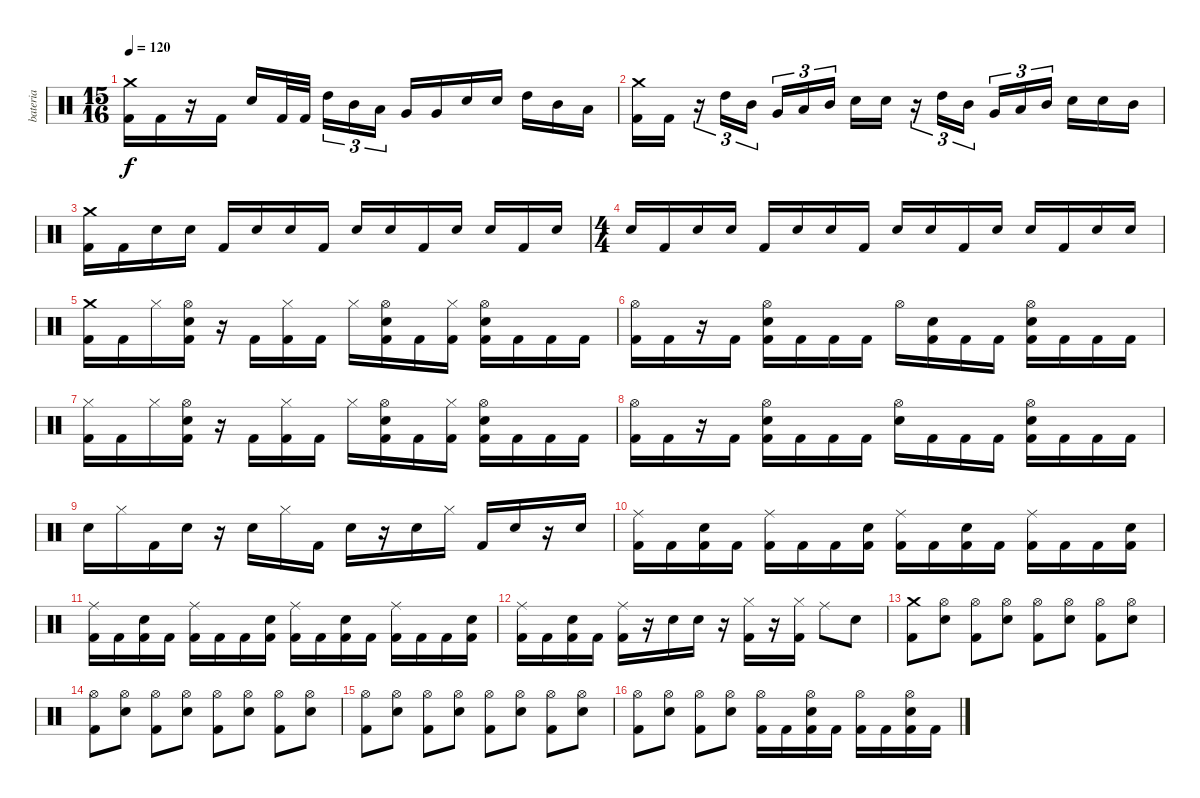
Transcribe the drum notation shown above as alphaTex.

\track ("bateria" "bateria") {instrument percussion}
\staff {score}
\articulation defaults
\ts (15 16)
\tempo 120
\clef neutral
\ks c
("Crash medium (hit)" "Kick (hit) 2").16{dy f} "Kick (hit) 2".16 r.16 "Kick (hit) 2".16 "Electric Snare (hit)".16 "Kick (hit) 2".32 "Kick (hit) 2".32 "High Tom (hit)".16{tu (3 2)} "Mid Tom (hit)".16{tu (3 2)} "Low Tom (hit)".16{tu (3 2)} "Very Low Tom (hit)".16 "Very Low Tom (hit)".16 "Electric Snare (hit)".16 "Electric Snare (hit)".16 "High Tom (hit)".16 "Mid Tom (hit)".16 "Low Tom (hit)".16 |
("Crash medium (hit)" "Kick (hit) 2").16 "Kick (hit) 2".16 r.16{tu (3 2)} "High Tom (hit)".16{tu (3 2)} "Mid Tom (hit)".16{tu (3 2)} "Very Low Tom (hit)".16{tu (3 2)} "Low Tom (hit)".16{tu (3 2)} "Mid Tom (hit)".16{tu (3 2)} "Electric Snare (hit)".16 "Electric Snare (hit)".16 r.16{tu (3 2)} "High Tom (hit)".16{tu (3 2)} "Mid Tom (hit)".16{tu (3 2)} "Very Low Tom (hit)".16{tu (3 2)} "Low Tom (hit)".16{tu (3 2)} "Mid Tom (hit)".16{tu (3 2)} "Electric Snare (hit)".16 "Electric Snare (hit)".16 "Mid Tom (hit)".16 |
("Crash medium (hit)" "Kick (hit) 2").16 "Kick (hit) 2".16 "Electric Snare (hit)".16 "Electric Snare (hit)".16 "Kick (hit) 2".16 "Electric Snare (hit)".16 "Electric Snare (hit)".16 "Kick (hit) 2".16 "Electric Snare (hit)".16 "Electric Snare (hit)".16 "Kick (hit) 2".16 "Electric Snare (hit)".16 "Electric Snare (hit)".16 "Kick (hit) 2".16 "Electric Snare (hit)".16 |
\ts (4 4)
"Electric Snare (hit)".16 "Kick (hit) 2".16 "Electric Snare (hit)".16 "Electric Snare (hit)".16 "Kick (hit) 2".16 "Electric Snare (hit)".16 "Electric Snare (hit)".16 "Kick (hit) 2".16 "Electric Snare (hit)".16 "Electric Snare (hit)".16 "Kick (hit) 2".16 "Electric Snare (hit)".16 "Electric Snare (hit)".16 "Kick (hit) 2".16 "Electric Snare (hit)".16 "Electric Snare (hit)".16 |
("Crash medium (hit)" "Kick (hit) 2").16 "Kick (hit) 2".16 "Hi-Hat (closed)".16 ("Hi-Hat (open)" "Electric Snare (hit)" "Kick (hit) 2").16 r.16 "Kick (hit) 2".16 ("Hi-Hat (closed)" "Kick (hit) 2").16 "Kick (hit) 2".16 "Hi-Hat (closed)".16 ("Hi-Hat (open)" "Electric Snare (hit)" "Kick (hit) 2").16 "Kick (hit) 2".16 ("Hi-Hat (closed)" "Kick (hit) 2").16 ("Hi-Hat (open)" "Electric Snare (hit)" "Kick (hit) 2").16 "Kick (hit) 2".16 "Kick (hit) 2".16 "Kick (hit) 2".16 |
("Hi-Hat (open)" "Kick (hit) 2").16 "Kick (hit) 2".16 r.16 "Kick (hit) 2".16 ("Hi-Hat (open)" "Electric Snare (hit)" "Kick (hit) 2").16 "Kick (hit) 2".16 "Kick (hit) 2".16 "Kick (hit) 2".16 "Hi-Hat (open)".16 ("Electric Snare (hit)" "Kick (hit) 2").16 "Kick (hit) 2".16 "Kick (hit) 2".16 ("Hi-Hat (open)" "Electric Snare (hit)" "Kick (hit) 2").16 "Kick (hit) 2".16 "Kick (hit) 2".16 "Kick (hit) 2".16 |
("Hi-Hat (closed)" "Kick (hit) 2").16 "Kick (hit) 2".16 "Hi-Hat (closed)".16 ("Hi-Hat (open)" "Electric Snare (hit)" "Kick (hit) 2").16 r.16 "Kick (hit) 2".16 ("Hi-Hat (closed)" "Kick (hit) 2").16 "Kick (hit) 2".16 "Hi-Hat (closed)".16 ("Hi-Hat (open)" "Electric Snare (hit)" "Kick (hit) 2").16 "Kick (hit) 2".16 ("Hi-Hat (closed)" "Kick (hit) 2").16 ("Hi-Hat (open)" "Electric Snare (hit)" "Kick (hit) 2").16 "Kick (hit) 2".16 "Kick (hit) 2".16 "Kick (hit) 2".16 |
("Hi-Hat (open)" "Kick (hit) 2").16 "Kick (hit) 2".16 r.16 "Kick (hit) 2".16 ("Hi-Hat (open)" "Electric Snare (hit)" "Kick (hit) 2").16 "Kick (hit) 2".16 "Kick (hit) 2".16 "Kick (hit) 2".16 ("Hi-Hat (open)" "Electric Snare (hit)").16 "Kick (hit) 2".16 "Kick (hit) 2".16 "Kick (hit) 2".16 ("Hi-Hat (open)" "Electric Snare (hit)" "Kick (hit) 2").16 "Kick (hit) 2".16 "Kick (hit) 2".16 "Kick (hit) 2".16 |
"Electric Snare (hit)".16 "Hi-Hat (closed)".16 "Kick (hit) 2".16 "Electric Snare (hit)".16 r.16 "Electric Snare (hit)".16 "Hi-Hat (closed)".16 "Kick (hit) 2".16 "Electric Snare (hit)".16 r.16 "Electric Snare (hit)".16 "Hi-Hat (closed)".16 "Kick (hit) 2".16 "Electric Snare (hit)".16 r.16 "Electric Snare (hit)".16 |
("Ride (middle)" "Kick (hit) 2").16 "Kick (hit) 2".16 ("Electric Snare (hit)" "Kick (hit) 2").16 "Kick (hit) 2".16 ("Ride (middle)" "Kick (hit) 2").16 "Kick (hit) 2".16 "Kick (hit) 2".16 ("Electric Snare (hit)" "Kick (hit) 2").16 ("Ride (middle)" "Kick (hit) 2").16 "Kick (hit) 2".16 ("Electric Snare (hit)" "Kick (hit) 2").16 "Kick (hit) 2".16 ("Ride (middle)" "Kick (hit) 2").16 "Kick (hit) 2".16 "Kick (hit) 2".16 ("Electric Snare (hit)" "Kick (hit) 2").16 |
("Ride (middle)" "Kick (hit) 2").16 "Kick (hit) 2".16 ("Electric Snare (hit)" "Kick (hit) 2").16 "Kick (hit) 2".16 ("Ride (middle)" "Kick (hit) 2").16 "Kick (hit) 2".16 "Kick (hit) 2".16 ("Electric Snare (hit)" "Kick (hit) 2").16 ("Ride (middle)" "Kick (hit) 2").16 "Kick (hit) 2".16 ("Electric Snare (hit)" "Kick (hit) 2").16 "Kick (hit) 2".16 ("Ride (middle)" "Kick (hit) 2").16 "Kick (hit) 2".16 "Kick (hit) 2".16 ("Electric Snare (hit)" "Kick (hit) 2").16 |
("Ride (middle)" "Kick (hit) 2").16 "Kick (hit) 2".16 ("Electric Snare (hit)" "Kick (hit) 2").16 "Kick (hit) 2".16 ("Ride (middle)" "Kick (hit) 2").16 r.16 "Electric Snare (hit)".16 "Electric Snare (hit)".16 r.16 ("Hi-Hat (closed)" "Kick (hit) 2").16 r.16 ("Hi-Hat (closed)" "Kick (hit) 2").16 "Ride (middle)".8 "Electric Snare (hit)".8 |
("Crash medium (hit)" "Kick (hit) 2").8 ("Hi-Hat (open)" "Electric Snare (hit)").8 ("Hi-Hat (open)" "Kick (hit) 2").8 ("Hi-Hat (open)" "Electric Snare (hit)").8 ("Hi-Hat (open)" "Kick (hit) 2").8 ("Hi-Hat (open)" "Electric Snare (hit)").8 ("Hi-Hat (open)" "Kick (hit) 2").8 ("Hi-Hat (open)" "Electric Snare (hit)").8 |
("Hi-Hat (open)" "Kick (hit) 2").8 ("Hi-Hat (open)" "Electric Snare (hit)").8 ("Hi-Hat (open)" "Kick (hit) 2").8 ("Hi-Hat (open)" "Electric Snare (hit)").8 ("Hi-Hat (open)" "Kick (hit) 2").8 ("Hi-Hat (open)" "Electric Snare (hit)").8 ("Hi-Hat (open)" "Kick (hit) 2").8 ("Hi-Hat (open)" "Electric Snare (hit)").8 |
("Hi-Hat (open)" "Kick (hit) 2").8 ("Hi-Hat (open)" "Electric Snare (hit)").8 ("Hi-Hat (open)" "Kick (hit) 2").8 ("Hi-Hat (open)" "Electric Snare (hit)").8 ("Hi-Hat (open)" "Kick (hit) 2").8 ("Hi-Hat (open)" "Electric Snare (hit)").8 ("Hi-Hat (open)" "Kick (hit) 2").8 ("Hi-Hat (open)" "Electric Snare (hit)").8 |
("Hi-Hat (open)" "Kick (hit) 2").8 ("Hi-Hat (open)" "Electric Snare (hit)").8 ("Hi-Hat (open)" "Kick (hit) 2").8 ("Hi-Hat (open)" "Electric Snare (hit)").8 ("Hi-Hat (open)" "Kick (hit) 2").16 "Kick (hit) 2".16 ("Hi-Hat (open)" "Electric Snare (hit)" "Kick (hit) 2").16 "Kick (hit) 2".16 ("Hi-Hat (open)" "Kick (hit) 2").16 "Kick (hit) 2".16 ("Hi-Hat (open)" "Electric Snare (hit)" "Kick (hit) 2").16 "Kick (hit) 2".16
